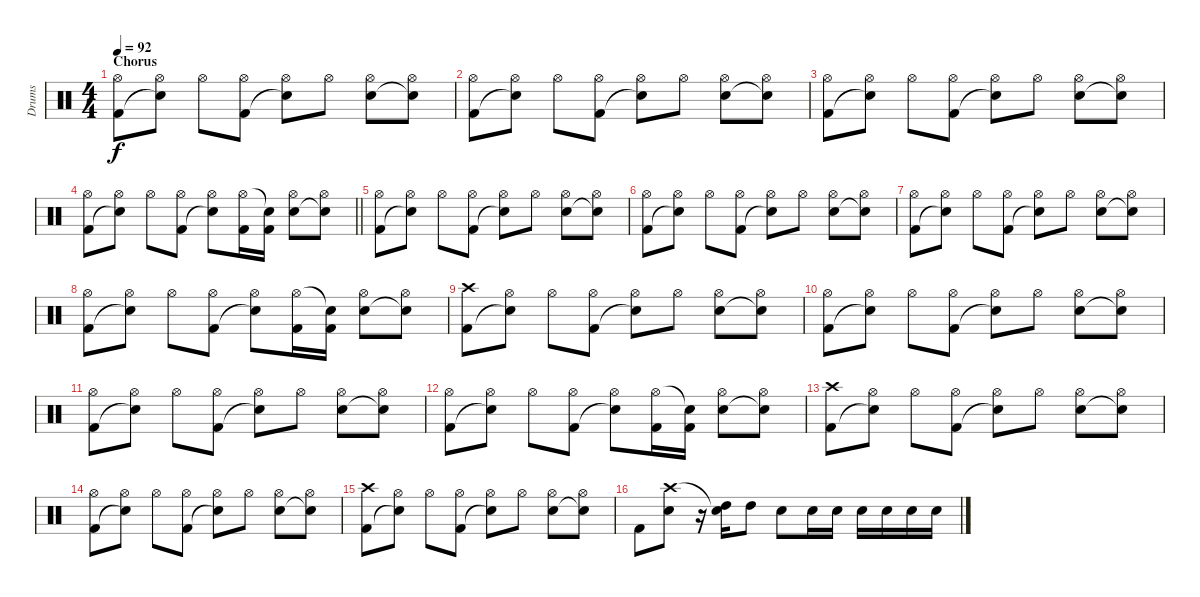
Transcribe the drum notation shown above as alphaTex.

\track ("Drums" "Drums") {instrument percussion}
\staff {score}
\articulation defaults
\ts (4 4)
\section ("" "Chorus")
\tempo 92
\clef neutral
\ks c
("Hi-Hat (open)" "Kick (hit) 2").8{dy f} ("Hi-Hat (open)" "Snare (hit)"{t}).8 "Hi-Hat (open)".8 ("Hi-Hat (open)" "Kick (hit) 2").8 ("Hi-Hat (open)" "Snare (hit)"{t}).8 "Hi-Hat (open)".8 ("Hi-Hat (open)" "Snare (hit) 2").8 ("Hi-Hat (open)" "Snare (hit)"{t}).8 |
("Hi-Hat (open)" "Kick (hit) 2").8 ("Hi-Hat (open)" "Snare (hit)"{t}).8 "Hi-Hat (open)".8 ("Hi-Hat (open)" "Kick (hit) 2").8 ("Hi-Hat (open)" "Snare (hit)"{t}).8 "Hi-Hat (open)".8 ("Hi-Hat (open)" "Snare (hit) 2").8 ("Hi-Hat (open)" "Snare (hit)"{t}).8 |
("Hi-Hat (open)" "Kick (hit) 2").8 ("Hi-Hat (open)" "Snare (hit)"{t}).8 "Hi-Hat (open)".8 ("Hi-Hat (open)" "Kick (hit) 2").8 ("Hi-Hat (open)" "Snare (hit)"{t}).8 "Hi-Hat (open)".8 ("Hi-Hat (open)" "Snare (hit) 2").8 ("Hi-Hat (open)" "Snare (hit)"{t}).8 |
\barLineRight lightlight
("Hi-Hat (open)" "Kick (hit) 2").8 ("Hi-Hat (open)" "Snare (hit)"{t}).8 "Hi-Hat (open)".8 ("Hi-Hat (open)" "Kick (hit) 2").8 ("Hi-Hat (open)" "Snare (hit)"{t}).8 ("Hi-Hat (open)" "Kick (hit) 2").16 ("Snare (hit)"{t} "Kick (hit) 2").16 ("Hi-Hat (open)" "Snare (hit) 2").8 ("Hi-Hat (open)" "Snare (hit)"{t}).8 |
("Hi-Hat (open)" "Kick (hit) 2").8 ("Hi-Hat (open)" "Snare (hit)"{t}).8 "Hi-Hat (open)".8 ("Hi-Hat (open)" "Kick (hit) 2").8 ("Hi-Hat (open)" "Snare (hit)"{t}).8 "Hi-Hat (open)".8 ("Hi-Hat (open)" "Snare (hit) 2").8 ("Hi-Hat (open)" "Snare (hit)"{t}).8 |
("Hi-Hat (open)" "Kick (hit) 2").8 ("Hi-Hat (open)" "Snare (hit)"{t}).8 "Hi-Hat (open)".8 ("Hi-Hat (open)" "Kick (hit) 2").8 ("Hi-Hat (open)" "Snare (hit)"{t}).8 "Hi-Hat (open)".8 ("Hi-Hat (open)" "Snare (hit) 2").8 ("Hi-Hat (open)" "Snare (hit)"{t}).8 |
("Hi-Hat (open)" "Kick (hit) 2").8 ("Hi-Hat (open)" "Snare (hit)"{t}).8 "Hi-Hat (open)".8 ("Hi-Hat (open)" "Kick (hit) 2").8 ("Hi-Hat (open)" "Snare (hit)"{t}).8 "Hi-Hat (open)".8 ("Hi-Hat (open)" "Snare (hit) 2").8 ("Hi-Hat (open)" "Snare (hit)"{t}).8 |
("Hi-Hat (open)" "Kick (hit) 2").8 ("Hi-Hat (open)" "Snare (hit)"{t}).8 "Hi-Hat (open)".8 ("Hi-Hat (open)" "Kick (hit) 2").8 ("Hi-Hat (open)" "Snare (hit)"{t}).8 ("Hi-Hat (open)" "Kick (hit) 2").16 ("Snare (hit)"{t} "Kick (hit) 2").16 ("Hi-Hat (open)" "Snare (hit) 2").8 ("Hi-Hat (open)" "Snare (hit)"{t}).8 |
("Crash high (hit)" "Kick (hit) 2").8 ("Hi-Hat (open)" "Snare (hit)"{t}).8 "Hi-Hat (open)".8 ("Hi-Hat (open)" "Kick (hit) 2").8 ("Hi-Hat (open)" "Snare (hit)"{t}).8 "Hi-Hat (open)".8 ("Hi-Hat (open)" "Snare (hit) 2").8 ("Hi-Hat (open)" "Snare (hit)"{t}).8 |
("Hi-Hat (open)" "Kick (hit) 2").8 ("Hi-Hat (open)" "Snare (hit)"{t}).8 "Hi-Hat (open)".8 ("Hi-Hat (open)" "Kick (hit) 2").8 ("Hi-Hat (open)" "Snare (hit)"{t}).8 "Hi-Hat (open)".8 ("Hi-Hat (open)" "Snare (hit) 2").8 ("Hi-Hat (open)" "Snare (hit)"{t}).8 |
("Hi-Hat (open)" "Kick (hit) 2").8 ("Hi-Hat (open)" "Snare (hit)"{t}).8 "Hi-Hat (open)".8 ("Hi-Hat (open)" "Kick (hit) 2").8 ("Hi-Hat (open)" "Snare (hit)"{t}).8 "Hi-Hat (open)".8 ("Hi-Hat (open)" "Snare (hit) 2").8 ("Hi-Hat (open)" "Snare (hit)"{t}).8 |
("Hi-Hat (open)" "Kick (hit) 2").8 ("Hi-Hat (open)" "Snare (hit)"{t}).8 "Hi-Hat (open)".8 ("Hi-Hat (open)" "Kick (hit) 2").8 ("Hi-Hat (open)" "Snare (hit)"{t}).8 ("Hi-Hat (open)" "Kick (hit) 2").16 ("Snare (hit)"{t} "Kick (hit) 2").16 ("Hi-Hat (open)" "Snare (hit) 2").8 ("Hi-Hat (open)" "Snare (hit)"{t}).8 |
("Crash high (hit)" "Kick (hit) 2").8 ("Hi-Hat (open)" "Snare (hit)"{t}).8 "Hi-Hat (open)".8 ("Hi-Hat (open)" "Kick (hit) 2").8 ("Hi-Hat (open)" "Snare (hit)"{t}).8 "Hi-Hat (open)".8 ("Hi-Hat (open)" "Snare (hit) 2").8 ("Hi-Hat (open)" "Snare (hit)"{t}).8 |
("Hi-Hat (open)" "Kick (hit) 2").8 ("Hi-Hat (open)" "Snare (hit)"{t}).8 "Hi-Hat (open)".8 ("Hi-Hat (open)" "Kick (hit) 2").8 ("Hi-Hat (open)" "Snare (hit)"{t}).8 "Hi-Hat (open)".8 ("Hi-Hat (open)" "Snare (hit) 2").8 ("Hi-Hat (open)" "Snare (hit)"{t}).8 |
("Crash high (hit)" "Kick (hit) 2").8 ("Hi-Hat (open)" "Snare (hit)"{t}).8 "Hi-Hat (open)".8 ("Hi-Hat (open)" "Kick (hit) 2").8 ("Hi-Hat (open)" "Snare (hit)"{t}).8 "Hi-Hat (open)".8 ("Hi-Hat (open)" "Snare (hit) 2").8 ("Hi-Hat (open)" "Snare (hit)"{t}).8 |
"Kick (hit) 2".8 ("Crash high (hit)" "Snare (hit) 2").8 r.16 ("Snare (hit)"{t} "High Tom (hit)").16 "High Tom (hit)".8 "Snare (hit) 2".8 "Snare (hit) 2".16 "Snare (hit) 2".16 "Snare (hit) 2".16 "Snare (hit) 2".16 "Snare (hit) 2".16 "Snare (hit) 2".16
